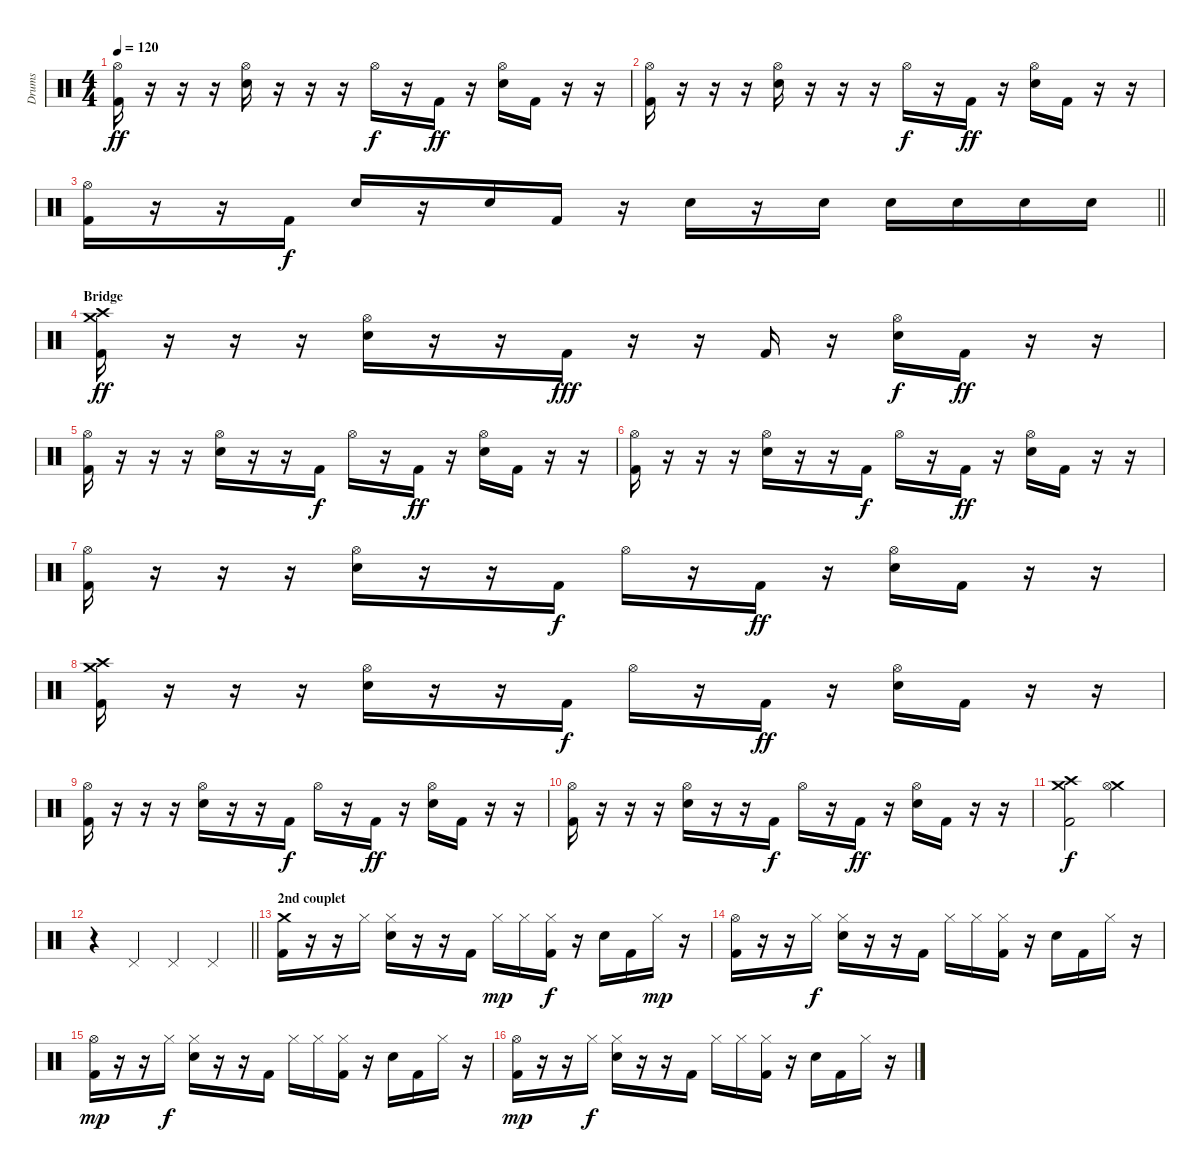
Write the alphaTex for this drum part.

\track ("Drums" "Drums") {instrument percussion}
\staff {score}
\articulation defaults
\ts (4 4)
\tempo 120
\clef neutral
\ks c
("Hi-Hat (open)" "Kick (hit) 2").16{dy ff} r.16 r.16 r.16 ("Hi-Hat (open)" "Electric Snare (hit)").16 r.16 r.16 r.16 "Hi-Hat (open)".16{dy f} r.16 "Kick (hit) 2".16{dy ff} r.16 ("Hi-Hat (open)" "Electric Snare (hit)").16 "Kick (hit) 2".16 r.16 r.16 |
("Hi-Hat (open)" "Kick (hit) 2").16 r.16 r.16 r.16 ("Hi-Hat (open)" "Electric Snare (hit)").16 r.16 r.16 r.16 "Hi-Hat (open)".16{dy f} r.16 "Kick (hit) 2".16{dy ff} r.16 ("Hi-Hat (open)" "Electric Snare (hit)").16 "Kick (hit) 2".16 r.16 r.16 |
\barLineRight lightlight
("Hi-Hat (open)" "Kick (hit) 2").16 r.16 r.16 "Kick (hit) 2".16{dy f} "Electric Snare (hit)".16 r.16 "Electric Snare (hit)".16 "Kick (hit) 2".16 r.16 "Electric Snare (hit)".16 r.16 "Electric Snare (hit)".16 "Electric Snare (hit)".16 "Electric Snare (hit)".16 "Electric Snare (hit)".16 "Electric Snare (hit)".16 |
\section ("" "Bridge")
("Crash high (hit)" "Crash medium (hit)" "Kick (hit) 2").16{dy ff} r.16 r.16 r.16 ("Hi-Hat (open)" "Electric Snare (hit)").16 r.16 r.16 "Kick (hit) 2".16{dy fff} r.16 r.16 "Kick (hit) 2".16 r.16 ("Hi-Hat (open)" "Electric Snare (hit)").16{dy f} "Kick (hit) 2".16{dy ff} r.16 r.16 |
("Hi-Hat (open)" "Kick (hit) 2").16 r.16 r.16 r.16 ("Hi-Hat (open)" "Electric Snare (hit)").16 r.16 r.16 "Kick (hit) 2".16{dy f} "Hi-Hat (open)".16 r.16 "Kick (hit) 2".16{dy ff} r.16 ("Hi-Hat (open)" "Electric Snare (hit)").16 "Kick (hit) 2".16 r.16 r.16 |
("Hi-Hat (open)" "Kick (hit) 2").16 r.16 r.16 r.16 ("Hi-Hat (open)" "Electric Snare (hit)").16 r.16 r.16 "Kick (hit) 2".16{dy f} "Hi-Hat (open)".16 r.16 "Kick (hit) 2".16{dy ff} r.16 ("Hi-Hat (open)" "Electric Snare (hit)").16 "Kick (hit) 2".16 r.16 r.16 |
("Hi-Hat (open)" "Kick (hit) 2").16 r.16 r.16 r.16 ("Hi-Hat (open)" "Electric Snare (hit)").16 r.16 r.16 "Kick (hit) 2".16{dy f} "Hi-Hat (open)".16 r.16 "Kick (hit) 2".16{dy ff} r.16 ("Hi-Hat (open)" "Electric Snare (hit)").16 "Kick (hit) 2".16 r.16 r.16 |
("Crash high (hit)" "Crash medium (hit)" "Kick (hit) 2").16 r.16 r.16 r.16 ("Hi-Hat (open)" "Electric Snare (hit)").16 r.16 r.16 "Kick (hit) 2".16{dy f} "Hi-Hat (open)".16 r.16 "Kick (hit) 2".16{dy ff} r.16 ("Hi-Hat (open)" "Electric Snare (hit)").16 "Kick (hit) 2".16 r.16 r.16 |
("Hi-Hat (open)" "Kick (hit) 2").16 r.16 r.16 r.16 ("Hi-Hat (open)" "Electric Snare (hit)").16 r.16 r.16 "Kick (hit) 2".16{dy f} "Hi-Hat (open)".16 r.16 "Kick (hit) 2".16{dy ff} r.16 ("Hi-Hat (open)" "Electric Snare (hit)").16 "Kick (hit) 2".16 r.16 r.16 |
("Hi-Hat (open)" "Kick (hit) 2").16 r.16 r.16 r.16 ("Hi-Hat (open)" "Electric Snare (hit)").16 r.16 r.16 "Kick (hit) 2".16{dy f} "Hi-Hat (open)".16 r.16 "Kick (hit) 2".16{dy ff} r.16 ("Hi-Hat (open)" "Electric Snare (hit)").16 "Kick (hit) 2".16 r.16 r.16 |
("Crash medium (hit)" "Crash high (hit)" "Kick (hit) 2").2{dy f} ("Crash medium (hit)" "Hi-Hat (open)").2 |
\barLineRight lightlight
r.4 "Pedal Hi-Hat (hit)".4 "Pedal Hi-Hat (hit)".4 "Pedal Hi-Hat (hit)".4 |
\section ("" "2nd couplet")
("Crash medium (hit)" "Kick (hit) 2").16 r.16 r.16 "Hi-Hat (closed)".16 ("Hi-Hat (closed)" "Electric Snare (hit)").16 r.16 r.16 "Kick (hit) 2".16 "Hi-Hat (closed)".16{dy mp} "Hi-Hat (closed)".16 ("Hi-Hat (closed)" "Kick (hit) 2").16{dy f} r.16 "Electric Snare (hit)".16 "Kick (hit) 2".16 "Hi-Hat (closed)".16{dy mp} r.16 |
("Hi-Hat (open)" "Kick (hit) 2").16 r.16 r.16 "Hi-Hat (closed)".16{dy f} ("Hi-Hat (closed)" "Electric Snare (hit)").16 r.16 r.16 "Kick (hit) 2".16 "Hi-Hat (closed)".16 "Hi-Hat (closed)".16 ("Hi-Hat (closed)" "Kick (hit) 2").16 r.16 "Electric Snare (hit)".16 "Kick (hit) 2".16 "Hi-Hat (closed)".16 r.16 |
("Hi-Hat (open)" "Kick (hit) 2").16{dy mp} r.16 r.16 "Hi-Hat (closed)".16{dy f} ("Hi-Hat (closed)" "Electric Snare (hit)").16 r.16 r.16 "Kick (hit) 2".16 "Hi-Hat (closed)".16 "Hi-Hat (closed)".16 ("Hi-Hat (closed)" "Kick (hit) 2").16 r.16 "Electric Snare (hit)".16 "Kick (hit) 2".16 "Hi-Hat (closed)".16 r.16 |
("Hi-Hat (open)" "Kick (hit) 2").16{dy mp} r.16 r.16 "Hi-Hat (closed)".16{dy f} ("Hi-Hat (closed)" "Electric Snare (hit)").16 r.16 r.16 "Kick (hit) 2".16 "Hi-Hat (closed)".16 "Hi-Hat (closed)".16 ("Hi-Hat (closed)" "Kick (hit) 2").16 r.16 "Electric Snare (hit)".16 "Kick (hit) 2".16 "Hi-Hat (closed)".16 r.16
